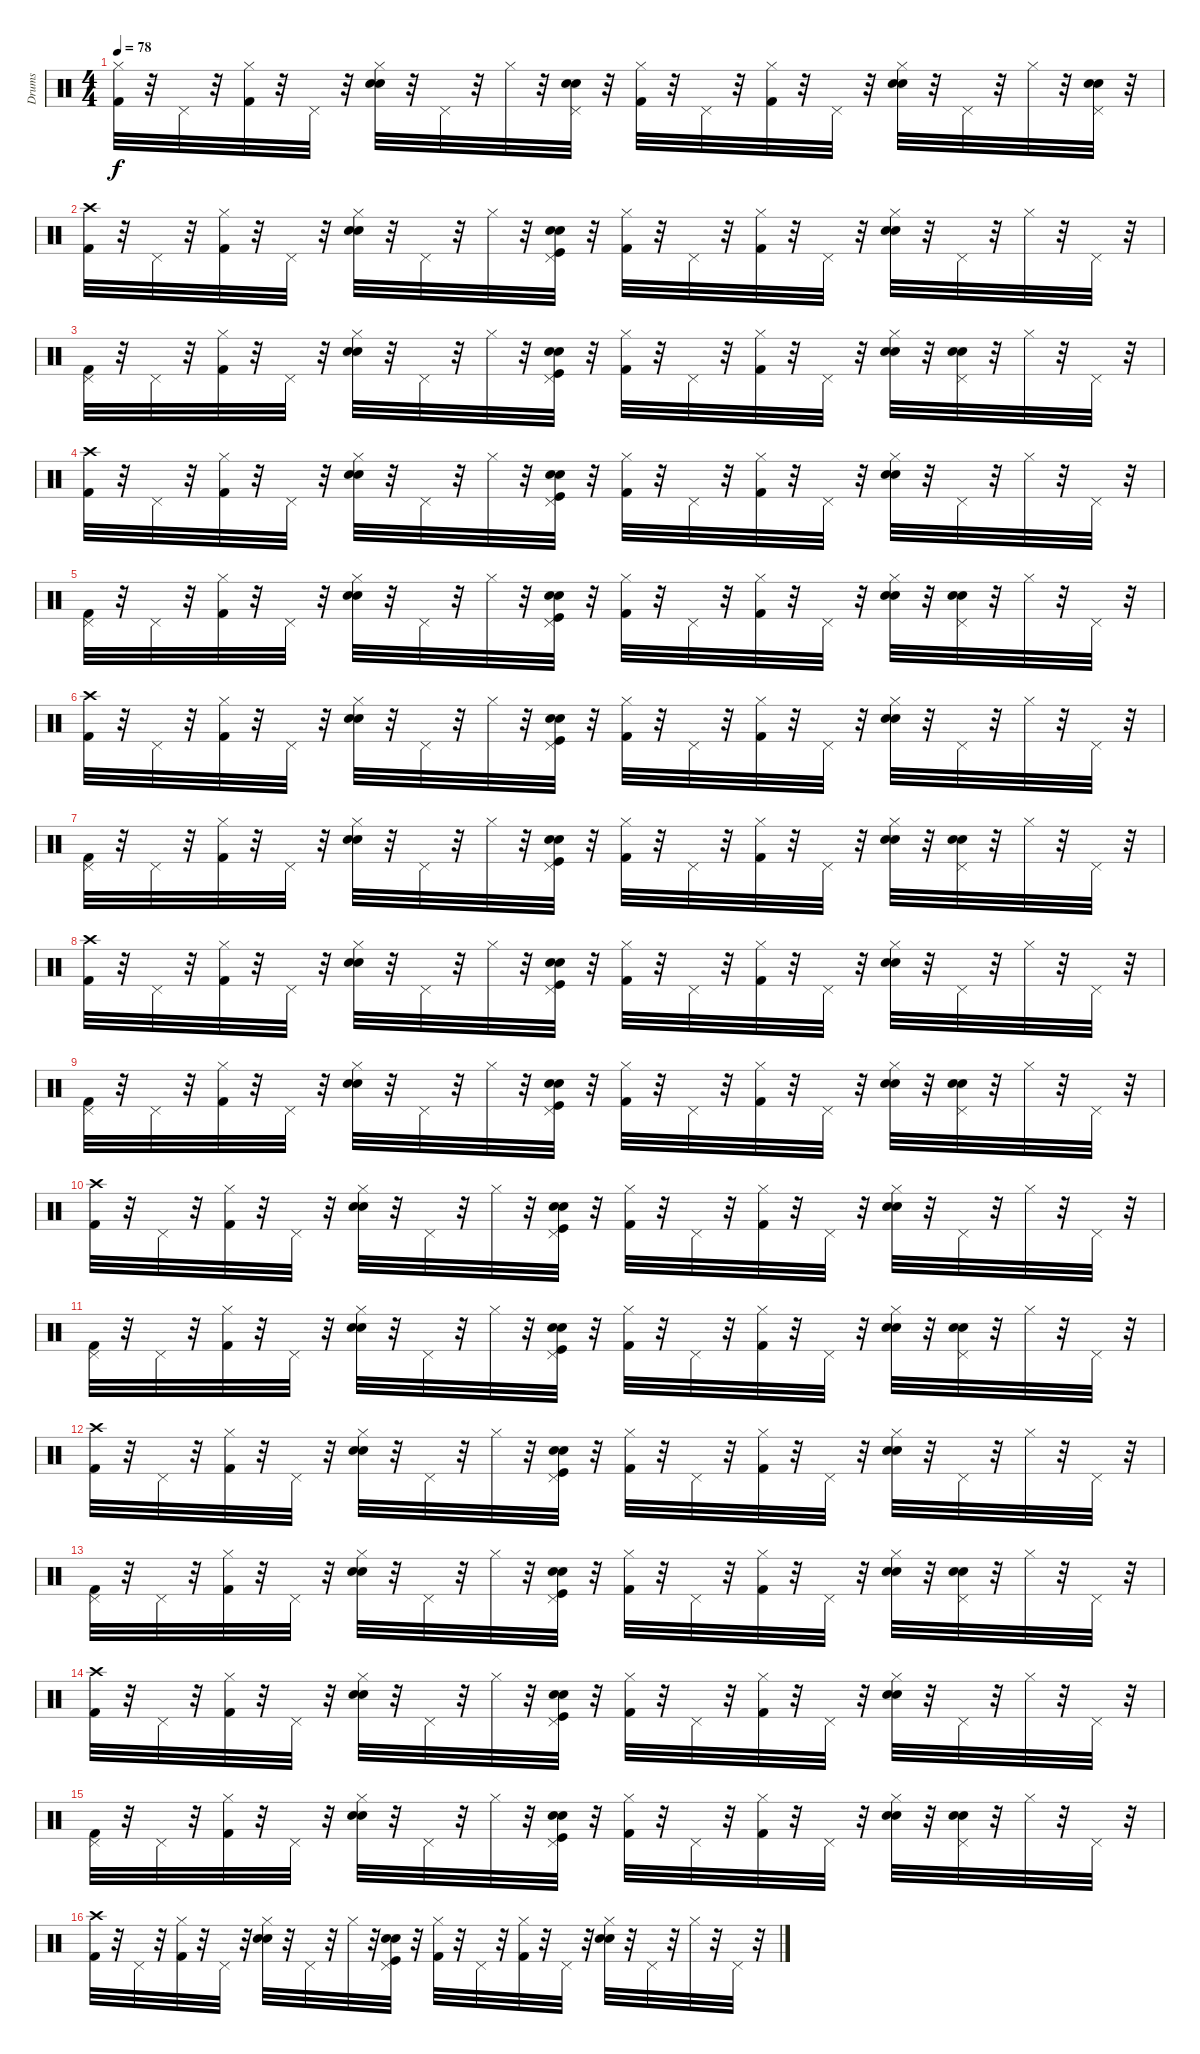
\track ("Drums" "Drums") {instrument percussion}
\staff {score}
\articulation defaults
\ts (4 4)
\tempo 78
\clef neutral
\ks c
("Hi-Hat (closed)" "Kick (hit) 2").32{dy f} r.32 "Pedal Hi-Hat (hit)".32 r.32 ("Kick (hit) 2" "Hi-Hat (closed)").32 r.32 "Pedal Hi-Hat (hit)".32 r.32 ("Snare (hit) 2" "Electric Snare (hit)" "Hi-Hat (closed)").32 r.32 "Pedal Hi-Hat (hit)".32 r.32 "Hi-Hat (closed)".32 r.32 ("Snare (hit) 2" "Electric Snare (hit)" "Pedal Hi-Hat (hit)").32 r.32 ("Kick (hit) 2" "Hi-Hat (closed)").32 r.32 "Pedal Hi-Hat (hit)".32 r.32 ("Kick (hit) 2" "Hi-Hat (closed)").32 r.32 "Pedal Hi-Hat (hit)".32 r.32 ("Electric Snare (hit)" "Snare (hit) 2" "Hi-Hat (closed)").32 r.32 "Pedal Hi-Hat (hit)".32 r.32 "Hi-Hat (closed)".32 r.32 ("Pedal Hi-Hat (hit)" "Snare (hit) 2" "Electric Snare (hit)").32 r.32 |
("Crash high (hit)" "Kick (hit) 2").32 r.32 "Pedal Hi-Hat (hit)".32 r.32 ("Hi-Hat (closed)" "Kick (hit) 2").32 r.32 "Pedal Hi-Hat (hit)".32 r.32 ("Hi-Hat (closed)" "Hand Clap (hit)" "Electric Snare (hit)").32 r.32 "Pedal Hi-Hat (hit)".32 r.32 "Hi-Hat (closed)".32 r.32 ("Hand Clap (hit)" "Electric Snare (hit)" "Pedal Hi-Hat (hit)" "Kick (hit)").32 r.32 ("Hi-Hat (closed)" "Kick (hit) 2").32 r.32 "Pedal Hi-Hat (hit)".32 r.32 ("Hi-Hat (closed)" "Kick (hit) 2").32 r.32 "Pedal Hi-Hat (hit)".32 r.32 ("Hi-Hat (closed)" "Hand Clap (hit)" "Electric Snare (hit)").32 r.32 "Pedal Hi-Hat (hit)".32 r.32 "Hi-Hat (closed)".32 r.32 "Pedal Hi-Hat (hit)".32 r.32 |
("Pedal Hi-Hat (hit)" "Kick (hit) 2").32 r.32 "Pedal Hi-Hat (hit)".32 r.32 ("Hi-Hat (closed)" "Kick (hit) 2").32 r.32 "Pedal Hi-Hat (hit)".32 r.32 ("Hi-Hat (closed)" "Hand Clap (hit)" "Electric Snare (hit)").32 r.32 "Pedal Hi-Hat (hit)".32 r.32 "Hi-Hat (closed)".32 r.32 ("Hand Clap (hit)" "Electric Snare (hit)" "Pedal Hi-Hat (hit)" "Kick (hit)").32 r.32 ("Hi-Hat (closed)" "Kick (hit) 2").32 r.32 "Pedal Hi-Hat (hit)".32 r.32 ("Hi-Hat (closed)" "Kick (hit) 2").32 r.32 "Pedal Hi-Hat (hit)".32 r.32 ("Hi-Hat (closed)" "Hand Clap (hit)" "Electric Snare (hit)").32 r.32 ("Hand Clap (hit)" "Electric Snare (hit)" "Pedal Hi-Hat (hit)").32 r.32 "Hi-Hat (closed)".32 r.32 "Pedal Hi-Hat (hit)".32 r.32 |
("Crash high (hit)" "Kick (hit) 2").32 r.32 "Pedal Hi-Hat (hit)".32 r.32 ("Hi-Hat (closed)" "Kick (hit) 2").32 r.32 "Pedal Hi-Hat (hit)".32 r.32 ("Hi-Hat (closed)" "Hand Clap (hit)" "Electric Snare (hit)").32 r.32 "Pedal Hi-Hat (hit)".32 r.32 "Hi-Hat (closed)".32 r.32 ("Hand Clap (hit)" "Electric Snare (hit)" "Pedal Hi-Hat (hit)" "Kick (hit)").32 r.32 ("Hi-Hat (closed)" "Kick (hit) 2").32 r.32 "Pedal Hi-Hat (hit)".32 r.32 ("Hi-Hat (closed)" "Kick (hit) 2").32 r.32 "Pedal Hi-Hat (hit)".32 r.32 ("Hi-Hat (closed)" "Hand Clap (hit)" "Electric Snare (hit)").32 r.32 "Pedal Hi-Hat (hit)".32 r.32 "Hi-Hat (closed)".32 r.32 "Pedal Hi-Hat (hit)".32 r.32 |
("Pedal Hi-Hat (hit)" "Kick (hit) 2").32 r.32 "Pedal Hi-Hat (hit)".32 r.32 ("Hi-Hat (closed)" "Kick (hit) 2").32 r.32 "Pedal Hi-Hat (hit)".32 r.32 ("Hi-Hat (closed)" "Hand Clap (hit)" "Electric Snare (hit)").32 r.32 "Pedal Hi-Hat (hit)".32 r.32 "Hi-Hat (closed)".32 r.32 ("Hand Clap (hit)" "Electric Snare (hit)" "Pedal Hi-Hat (hit)" "Kick (hit)").32 r.32 ("Hi-Hat (closed)" "Kick (hit) 2").32 r.32 "Pedal Hi-Hat (hit)".32 r.32 ("Hi-Hat (closed)" "Kick (hit) 2").32 r.32 "Pedal Hi-Hat (hit)".32 r.32 ("Hi-Hat (closed)" "Hand Clap (hit)" "Electric Snare (hit)").32 r.32 ("Hand Clap (hit)" "Electric Snare (hit)" "Pedal Hi-Hat (hit)").32 r.32 "Hi-Hat (closed)".32 r.32 "Pedal Hi-Hat (hit)".32 r.32 |
("Crash high (hit)" "Kick (hit) 2").32 r.32 "Pedal Hi-Hat (hit)".32 r.32 ("Hi-Hat (closed)" "Kick (hit) 2").32 r.32 "Pedal Hi-Hat (hit)".32 r.32 ("Hi-Hat (closed)" "Hand Clap (hit)" "Electric Snare (hit)").32 r.32 "Pedal Hi-Hat (hit)".32 r.32 "Hi-Hat (closed)".32 r.32 ("Hand Clap (hit)" "Electric Snare (hit)" "Pedal Hi-Hat (hit)" "Kick (hit)").32 r.32 ("Hi-Hat (closed)" "Kick (hit) 2").32 r.32 "Pedal Hi-Hat (hit)".32 r.32 ("Hi-Hat (closed)" "Kick (hit) 2").32 r.32 "Pedal Hi-Hat (hit)".32 r.32 ("Hi-Hat (closed)" "Hand Clap (hit)" "Electric Snare (hit)").32 r.32 "Pedal Hi-Hat (hit)".32 r.32 "Hi-Hat (closed)".32 r.32 "Pedal Hi-Hat (hit)".32 r.32 |
("Pedal Hi-Hat (hit)" "Kick (hit) 2").32 r.32 "Pedal Hi-Hat (hit)".32 r.32 ("Hi-Hat (closed)" "Kick (hit) 2").32 r.32 "Pedal Hi-Hat (hit)".32 r.32 ("Hi-Hat (closed)" "Hand Clap (hit)" "Electric Snare (hit)").32 r.32 "Pedal Hi-Hat (hit)".32 r.32 "Hi-Hat (closed)".32 r.32 ("Hand Clap (hit)" "Electric Snare (hit)" "Pedal Hi-Hat (hit)" "Kick (hit)").32 r.32 ("Hi-Hat (closed)" "Kick (hit) 2").32 r.32 "Pedal Hi-Hat (hit)".32 r.32 ("Hi-Hat (closed)" "Kick (hit) 2").32 r.32 "Pedal Hi-Hat (hit)".32 r.32 ("Hi-Hat (closed)" "Hand Clap (hit)" "Electric Snare (hit)").32 r.32 ("Hand Clap (hit)" "Electric Snare (hit)" "Pedal Hi-Hat (hit)").32 r.32 "Hi-Hat (closed)".32 r.32 "Pedal Hi-Hat (hit)".32 r.32 |
("Crash high (hit)" "Kick (hit) 2").32 r.32 "Pedal Hi-Hat (hit)".32 r.32 ("Hi-Hat (closed)" "Kick (hit) 2").32 r.32 "Pedal Hi-Hat (hit)".32 r.32 ("Hi-Hat (closed)" "Hand Clap (hit)" "Electric Snare (hit)").32 r.32 "Pedal Hi-Hat (hit)".32 r.32 "Hi-Hat (closed)".32 r.32 ("Hand Clap (hit)" "Electric Snare (hit)" "Pedal Hi-Hat (hit)" "Kick (hit)").32 r.32 ("Hi-Hat (closed)" "Kick (hit) 2").32 r.32 "Pedal Hi-Hat (hit)".32 r.32 ("Hi-Hat (closed)" "Kick (hit) 2").32 r.32 "Pedal Hi-Hat (hit)".32 r.32 ("Hi-Hat (closed)" "Hand Clap (hit)" "Electric Snare (hit)").32 r.32 "Pedal Hi-Hat (hit)".32 r.32 "Hi-Hat (closed)".32 r.32 "Pedal Hi-Hat (hit)".32 r.32 |
("Pedal Hi-Hat (hit)" "Kick (hit) 2").32 r.32 "Pedal Hi-Hat (hit)".32 r.32 ("Hi-Hat (closed)" "Kick (hit) 2").32 r.32 "Pedal Hi-Hat (hit)".32 r.32 ("Hi-Hat (closed)" "Hand Clap (hit)" "Electric Snare (hit)").32 r.32 "Pedal Hi-Hat (hit)".32 r.32 "Hi-Hat (closed)".32 r.32 ("Hand Clap (hit)" "Electric Snare (hit)" "Pedal Hi-Hat (hit)" "Kick (hit)").32 r.32 ("Hi-Hat (closed)" "Kick (hit) 2").32 r.32 "Pedal Hi-Hat (hit)".32 r.32 ("Hi-Hat (closed)" "Kick (hit) 2").32 r.32 "Pedal Hi-Hat (hit)".32 r.32 ("Hi-Hat (closed)" "Hand Clap (hit)" "Electric Snare (hit)").32 r.32 ("Hand Clap (hit)" "Electric Snare (hit)" "Pedal Hi-Hat (hit)").32 r.32 "Hi-Hat (closed)".32 r.32 "Pedal Hi-Hat (hit)".32 r.32 |
("Crash high (hit)" "Kick (hit) 2").32 r.32 "Pedal Hi-Hat (hit)".32 r.32 ("Hi-Hat (closed)" "Kick (hit) 2").32 r.32 "Pedal Hi-Hat (hit)".32 r.32 ("Hi-Hat (closed)" "Hand Clap (hit)" "Electric Snare (hit)").32 r.32 "Pedal Hi-Hat (hit)".32 r.32 "Hi-Hat (closed)".32 r.32 ("Hand Clap (hit)" "Electric Snare (hit)" "Pedal Hi-Hat (hit)" "Kick (hit)").32 r.32 ("Hi-Hat (closed)" "Kick (hit) 2").32 r.32 "Pedal Hi-Hat (hit)".32 r.32 ("Hi-Hat (closed)" "Kick (hit) 2").32 r.32 "Pedal Hi-Hat (hit)".32 r.32 ("Hi-Hat (closed)" "Hand Clap (hit)" "Electric Snare (hit)").32 r.32 "Pedal Hi-Hat (hit)".32 r.32 "Hi-Hat (closed)".32 r.32 "Pedal Hi-Hat (hit)".32 r.32 |
("Pedal Hi-Hat (hit)" "Kick (hit) 2").32 r.32 "Pedal Hi-Hat (hit)".32 r.32 ("Hi-Hat (closed)" "Kick (hit) 2").32 r.32 "Pedal Hi-Hat (hit)".32 r.32 ("Hi-Hat (closed)" "Hand Clap (hit)" "Electric Snare (hit)").32 r.32 "Pedal Hi-Hat (hit)".32 r.32 "Hi-Hat (closed)".32 r.32 ("Hand Clap (hit)" "Electric Snare (hit)" "Pedal Hi-Hat (hit)" "Kick (hit)").32 r.32 ("Hi-Hat (closed)" "Kick (hit) 2").32 r.32 "Pedal Hi-Hat (hit)".32 r.32 ("Hi-Hat (closed)" "Kick (hit) 2").32 r.32 "Pedal Hi-Hat (hit)".32 r.32 ("Hi-Hat (closed)" "Hand Clap (hit)" "Electric Snare (hit)").32 r.32 ("Hand Clap (hit)" "Electric Snare (hit)" "Pedal Hi-Hat (hit)").32 r.32 "Hi-Hat (closed)".32 r.32 "Pedal Hi-Hat (hit)".32 r.32 |
("Crash high (hit)" "Kick (hit) 2").32 r.32 "Pedal Hi-Hat (hit)".32 r.32 ("Hi-Hat (closed)" "Kick (hit) 2").32 r.32 "Pedal Hi-Hat (hit)".32 r.32 ("Hi-Hat (closed)" "Hand Clap (hit)" "Electric Snare (hit)").32 r.32 "Pedal Hi-Hat (hit)".32 r.32 "Hi-Hat (closed)".32 r.32 ("Hand Clap (hit)" "Electric Snare (hit)" "Pedal Hi-Hat (hit)" "Kick (hit)").32 r.32 ("Hi-Hat (closed)" "Kick (hit) 2").32 r.32 "Pedal Hi-Hat (hit)".32 r.32 ("Hi-Hat (closed)" "Kick (hit) 2").32 r.32 "Pedal Hi-Hat (hit)".32 r.32 ("Hi-Hat (closed)" "Hand Clap (hit)" "Electric Snare (hit)").32 r.32 "Pedal Hi-Hat (hit)".32 r.32 "Hi-Hat (closed)".32 r.32 "Pedal Hi-Hat (hit)".32 r.32 |
("Pedal Hi-Hat (hit)" "Kick (hit) 2").32 r.32 "Pedal Hi-Hat (hit)".32 r.32 ("Hi-Hat (closed)" "Kick (hit) 2").32 r.32 "Pedal Hi-Hat (hit)".32 r.32 ("Hi-Hat (closed)" "Hand Clap (hit)" "Electric Snare (hit)").32 r.32 "Pedal Hi-Hat (hit)".32 r.32 "Hi-Hat (closed)".32 r.32 ("Hand Clap (hit)" "Electric Snare (hit)" "Pedal Hi-Hat (hit)" "Kick (hit)").32 r.32 ("Hi-Hat (closed)" "Kick (hit) 2").32 r.32 "Pedal Hi-Hat (hit)".32 r.32 ("Hi-Hat (closed)" "Kick (hit) 2").32 r.32 "Pedal Hi-Hat (hit)".32 r.32 ("Hi-Hat (closed)" "Hand Clap (hit)" "Electric Snare (hit)").32 r.32 ("Hand Clap (hit)" "Electric Snare (hit)" "Pedal Hi-Hat (hit)").32 r.32 "Hi-Hat (closed)".32 r.32 "Pedal Hi-Hat (hit)".32 r.32 |
("Crash high (hit)" "Kick (hit) 2").32 r.32 "Pedal Hi-Hat (hit)".32 r.32 ("Hi-Hat (closed)" "Kick (hit) 2").32 r.32 "Pedal Hi-Hat (hit)".32 r.32 ("Hi-Hat (closed)" "Hand Clap (hit)" "Electric Snare (hit)").32 r.32 "Pedal Hi-Hat (hit)".32 r.32 "Hi-Hat (closed)".32 r.32 ("Hand Clap (hit)" "Electric Snare (hit)" "Pedal Hi-Hat (hit)" "Kick (hit)").32 r.32 ("Hi-Hat (closed)" "Kick (hit) 2").32 r.32 "Pedal Hi-Hat (hit)".32 r.32 ("Hi-Hat (closed)" "Kick (hit) 2").32 r.32 "Pedal Hi-Hat (hit)".32 r.32 ("Hi-Hat (closed)" "Hand Clap (hit)" "Electric Snare (hit)").32 r.32 "Pedal Hi-Hat (hit)".32 r.32 "Hi-Hat (closed)".32 r.32 "Pedal Hi-Hat (hit)".32 r.32 |
("Pedal Hi-Hat (hit)" "Kick (hit) 2").32 r.32 "Pedal Hi-Hat (hit)".32 r.32 ("Hi-Hat (closed)" "Kick (hit) 2").32 r.32 "Pedal Hi-Hat (hit)".32 r.32 ("Hi-Hat (closed)" "Hand Clap (hit)" "Electric Snare (hit)").32 r.32 "Pedal Hi-Hat (hit)".32 r.32 "Hi-Hat (closed)".32 r.32 ("Hand Clap (hit)" "Electric Snare (hit)" "Pedal Hi-Hat (hit)" "Kick (hit)").32 r.32 ("Hi-Hat (closed)" "Kick (hit) 2").32 r.32 "Pedal Hi-Hat (hit)".32 r.32 ("Hi-Hat (closed)" "Kick (hit) 2").32 r.32 "Pedal Hi-Hat (hit)".32 r.32 ("Hi-Hat (closed)" "Hand Clap (hit)" "Electric Snare (hit)").32 r.32 ("Hand Clap (hit)" "Electric Snare (hit)" "Pedal Hi-Hat (hit)").32 r.32 "Hi-Hat (closed)".32 r.32 "Pedal Hi-Hat (hit)".32 r.32 |
("Crash high (hit)" "Kick (hit) 2").32 r.32 "Pedal Hi-Hat (hit)".32 r.32 ("Hi-Hat (closed)" "Kick (hit) 2").32 r.32 "Pedal Hi-Hat (hit)".32 r.32 ("Hi-Hat (closed)" "Hand Clap (hit)" "Electric Snare (hit)").32 r.32 "Pedal Hi-Hat (hit)".32 r.32 "Hi-Hat (closed)".32 r.32 ("Hand Clap (hit)" "Electric Snare (hit)" "Pedal Hi-Hat (hit)" "Kick (hit)").32 r.32 ("Hi-Hat (closed)" "Kick (hit) 2").32 r.32 "Pedal Hi-Hat (hit)".32 r.32 ("Hi-Hat (closed)" "Kick (hit) 2").32 r.32 "Pedal Hi-Hat (hit)".32 r.32 ("Hi-Hat (closed)" "Hand Clap (hit)" "Electric Snare (hit)").32 r.32 "Pedal Hi-Hat (hit)".32 r.32 "Hi-Hat (closed)".32 r.32 "Pedal Hi-Hat (hit)".32 r.32
